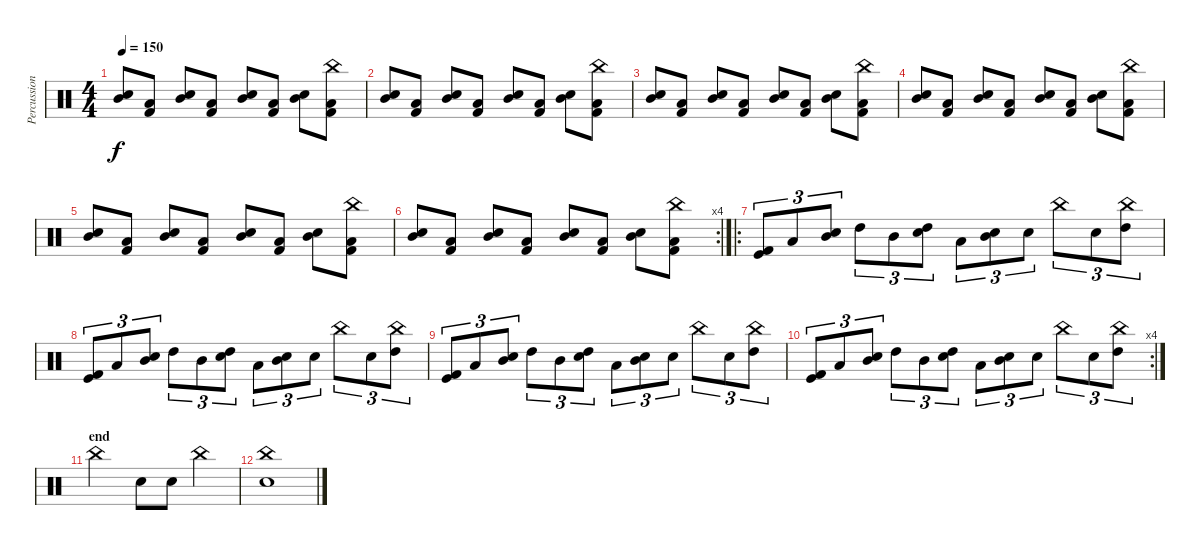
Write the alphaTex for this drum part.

\track ("Percussion" "Percussion") {instrument percussion}
\staff {score}
\articulation defaults
\ts (4 4)
\tempo 150
\clef neutral
\ks c
("Snare (hit) 2" "Mid Tom (hit)").8{dy f} ("Low Tom (hit)" "Kick (hit) 2").8 ("Snare (hit) 2" "Mid Tom (hit)").8 ("Low Tom (hit)" "Kick (hit) 2").8 ("Snare (hit) 2" "Mid Tom (hit)").8 ("Low Tom (hit)" "Kick (hit) 2").8 ("Snare (hit) 2" "Mid Tom (hit)").8 ("China (hit)" "Low Tom (hit)" "Kick (hit) 2").8 |
("Snare (hit) 2" "Mid Tom (hit)").8 ("Low Tom (hit)" "Kick (hit) 2").8 ("Snare (hit) 2" "Mid Tom (hit)").8 ("Low Tom (hit)" "Kick (hit) 2").8 ("Snare (hit) 2" "Mid Tom (hit)").8 ("Low Tom (hit)" "Kick (hit) 2").8 ("Snare (hit) 2" "Mid Tom (hit)").8 ("China (hit)" "Low Tom (hit)" "Kick (hit) 2").8 |
("Snare (hit) 2" "Mid Tom (hit)").8 ("Low Tom (hit)" "Kick (hit) 2").8 ("Snare (hit) 2" "Mid Tom (hit)").8 ("Low Tom (hit)" "Kick (hit) 2").8 ("Snare (hit) 2" "Mid Tom (hit)").8 ("Low Tom (hit)" "Kick (hit) 2").8 ("Snare (hit) 2" "Mid Tom (hit)").8 ("China (hit)" "Low Tom (hit)" "Kick (hit) 2").8 |
("Snare (hit) 2" "Mid Tom (hit)").8 ("Low Tom (hit)" "Kick (hit) 2").8 ("Snare (hit) 2" "Mid Tom (hit)").8 ("Low Tom (hit)" "Kick (hit) 2").8 ("Snare (hit) 2" "Mid Tom (hit)").8 ("Low Tom (hit)" "Kick (hit) 2").8 ("Snare (hit) 2" "Mid Tom (hit)").8 ("China (hit)" "Low Tom (hit)" "Kick (hit) 2").8 |
("Snare (hit) 2" "Mid Tom (hit)").8 ("Low Tom (hit)" "Kick (hit) 2").8 ("Snare (hit) 2" "Mid Tom (hit)").8 ("Low Tom (hit)" "Kick (hit) 2").8 ("Snare (hit) 2" "Mid Tom (hit)").8 ("Low Tom (hit)" "Kick (hit) 2").8 ("Snare (hit) 2" "Mid Tom (hit)").8 ("China (hit)" "Low Tom (hit)" "Kick (hit) 2").8 |
\rc 4
("Snare (hit) 2" "Mid Tom (hit)").8 ("Low Tom (hit)" "Kick (hit) 2").8 ("Snare (hit) 2" "Mid Tom (hit)").8 ("Low Tom (hit)" "Kick (hit) 2").8 ("Snare (hit) 2" "Mid Tom (hit)").8 ("Low Tom (hit)" "Kick (hit) 2").8 ("Snare (hit) 2" "Mid Tom (hit)").8 ("China (hit)" "Low Tom (hit)" "Kick (hit) 2").8 |
\ro
("Kick (hit) 2" "Kick (hit)").8{tu (3 2)} "Low Tom (hit)".8{tu (3 2)} ("Mid Tom (hit)" "Snare (hit) 2").8{tu (3 2)} "High Tom (hit)".8{tu (3 2)} "Mid Tom (hit)".8{tu (3 2)} ("High Tom (hit)" "Snare (hit) 2").8{tu (3 2)} "Low Tom (hit)".8{tu (3 2)} ("Mid Tom (hit)" "Snare (hit) 2").8{tu (3 2)} "Snare (hit) 2".8{tu (3 2)} "China (hit)".8{tu (3 2)} "Snare (hit) 2".8{tu (3 2)} ("High Tom (hit)" "China (hit)").8{tu (3 2)} |
("Kick (hit) 2" "Kick (hit)").8{tu (3 2)} "Low Tom (hit)".8{tu (3 2)} ("Mid Tom (hit)" "Snare (hit) 2").8{tu (3 2)} "High Tom (hit)".8{tu (3 2)} "Mid Tom (hit)".8{tu (3 2)} ("High Tom (hit)" "Snare (hit) 2").8{tu (3 2)} "Low Tom (hit)".8{tu (3 2)} ("Mid Tom (hit)" "Snare (hit) 2").8{tu (3 2)} "Snare (hit) 2".8{tu (3 2)} "China (hit)".8{tu (3 2)} "Snare (hit) 2".8{tu (3 2)} ("High Tom (hit)" "China (hit)").8{tu (3 2)} |
("Kick (hit) 2" "Kick (hit)").8{tu (3 2)} "Low Tom (hit)".8{tu (3 2)} ("Mid Tom (hit)" "Snare (hit) 2").8{tu (3 2)} "High Tom (hit)".8{tu (3 2)} "Mid Tom (hit)".8{tu (3 2)} ("High Tom (hit)" "Snare (hit) 2").8{tu (3 2)} "Low Tom (hit)".8{tu (3 2)} ("Mid Tom (hit)" "Snare (hit) 2").8{tu (3 2)} "Snare (hit) 2".8{tu (3 2)} "China (hit)".8{tu (3 2)} "Snare (hit) 2".8{tu (3 2)} ("High Tom (hit)" "China (hit)").8{tu (3 2)} |
\rc 4
("Kick (hit) 2" "Kick (hit)").8{tu (3 2)} "Low Tom (hit)".8{tu (3 2)} ("Mid Tom (hit)" "Snare (hit) 2").8{tu (3 2)} "High Tom (hit)".8{tu (3 2)} "Mid Tom (hit)".8{tu (3 2)} ("High Tom (hit)" "Snare (hit) 2").8{tu (3 2)} "Low Tom (hit)".8{tu (3 2)} ("Mid Tom (hit)" "Snare (hit) 2").8{tu (3 2)} "Snare (hit) 2".8{tu (3 2)} "China (hit)".8{tu (3 2)} "Snare (hit) 2".8{tu (3 2)} ("High Tom (hit)" "China (hit)").8{tu (3 2)} |
\section ("" "end")
"China (hit)".2 "Snare (hit) 2".8 "Snare (hit) 2".8 "China (hit)".4 |
("Snare (hit)" "China (hit)").1
